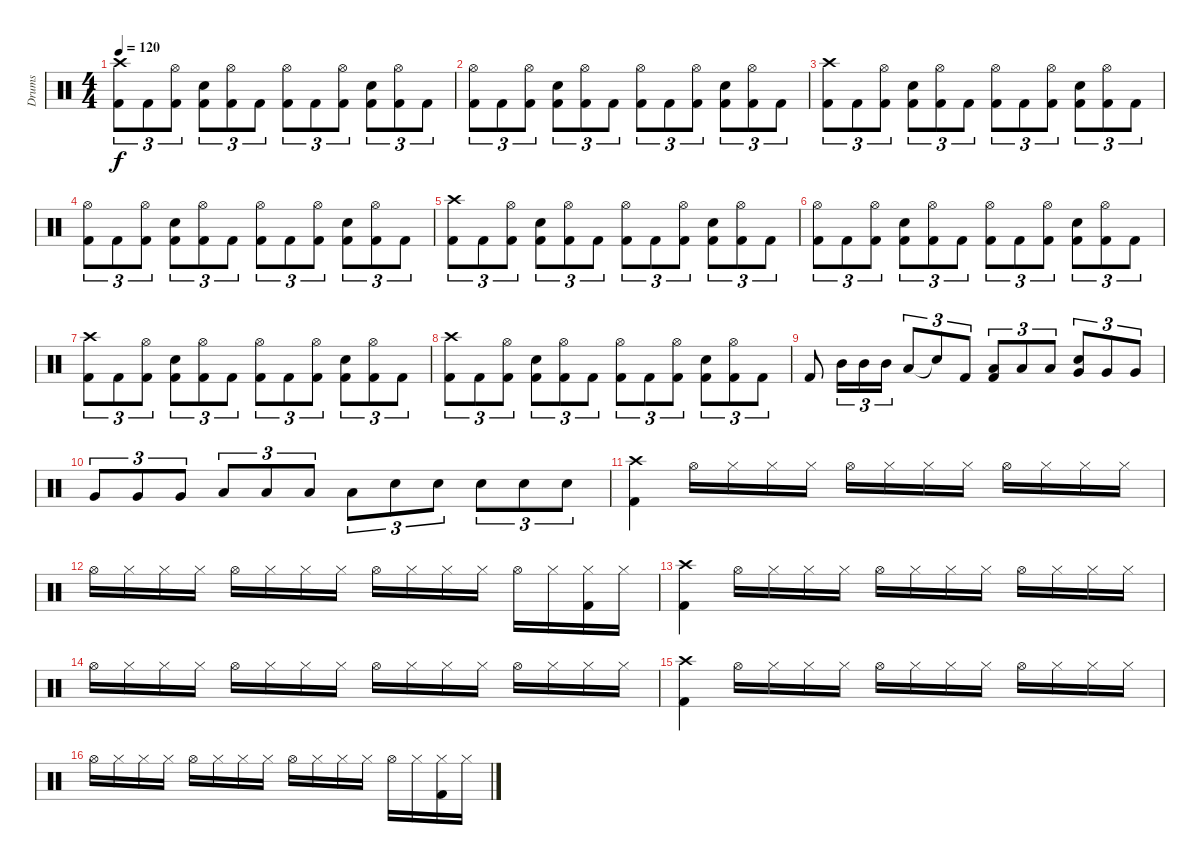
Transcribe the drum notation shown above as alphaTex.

\track ("Drums" "Drums") {instrument percussion}
\staff {score}
\articulation defaults
\ts (4 4)
\tempo 120
\clef neutral
\ks c
("Crash high (hit)" "Kick (hit) 2").8{tu (3 2) dy f} "Kick (hit) 2".8{tu (3 2)} ("Hi-Hat (open)" "Kick (hit) 2").8{tu (3 2)} ("Electric Snare (hit)" "Kick (hit) 2").8{tu (3 2)} ("Hi-Hat (open)" "Kick (hit) 2").8{tu (3 2)} "Kick (hit) 2".8{tu (3 2)} ("Hi-Hat (open)" "Kick (hit) 2").8{tu (3 2)} "Kick (hit) 2".8{tu (3 2)} ("Hi-Hat (open)" "Kick (hit) 2").8{tu (3 2)} ("Electric Snare (hit)" "Kick (hit) 2").8{tu (3 2)} ("Hi-Hat (open)" "Kick (hit) 2").8{tu (3 2)} "Kick (hit) 2".8{tu (3 2)} |
("Hi-Hat (open)" "Kick (hit) 2").8{tu (3 2)} "Kick (hit) 2".8{tu (3 2)} ("Hi-Hat (open)" "Kick (hit) 2").8{tu (3 2)} ("Electric Snare (hit)" "Kick (hit) 2").8{tu (3 2)} ("Hi-Hat (open)" "Kick (hit) 2").8{tu (3 2)} "Kick (hit) 2".8{tu (3 2)} ("Hi-Hat (open)" "Kick (hit) 2").8{tu (3 2)} "Kick (hit) 2".8{tu (3 2)} ("Hi-Hat (open)" "Kick (hit) 2").8{tu (3 2)} ("Electric Snare (hit)" "Kick (hit) 2").8{tu (3 2)} ("Hi-Hat (open)" "Kick (hit) 2").8{tu (3 2)} "Kick (hit) 2".8{tu (3 2)} |
("Crash high (hit)" "Kick (hit) 2").8{tu (3 2)} "Kick (hit) 2".8{tu (3 2)} ("Hi-Hat (open)" "Kick (hit) 2").8{tu (3 2)} ("Electric Snare (hit)" "Kick (hit) 2").8{tu (3 2)} ("Hi-Hat (open)" "Kick (hit) 2").8{tu (3 2)} "Kick (hit) 2".8{tu (3 2)} ("Hi-Hat (open)" "Kick (hit) 2").8{tu (3 2)} "Kick (hit) 2".8{tu (3 2)} ("Hi-Hat (open)" "Kick (hit) 2").8{tu (3 2)} ("Electric Snare (hit)" "Kick (hit) 2").8{tu (3 2)} ("Hi-Hat (open)" "Kick (hit) 2").8{tu (3 2)} "Kick (hit) 2".8{tu (3 2)} |
("Hi-Hat (open)" "Kick (hit) 2").8{tu (3 2)} "Kick (hit) 2".8{tu (3 2)} ("Hi-Hat (open)" "Kick (hit) 2").8{tu (3 2)} ("Electric Snare (hit)" "Kick (hit) 2").8{tu (3 2)} ("Hi-Hat (open)" "Kick (hit) 2").8{tu (3 2)} "Kick (hit) 2".8{tu (3 2)} ("Hi-Hat (open)" "Kick (hit) 2").8{tu (3 2)} "Kick (hit) 2".8{tu (3 2)} ("Hi-Hat (open)" "Kick (hit) 2").8{tu (3 2)} ("Electric Snare (hit)" "Kick (hit) 2").8{tu (3 2)} ("Hi-Hat (open)" "Kick (hit) 2").8{tu (3 2)} "Kick (hit) 2".8{tu (3 2)} |
("Crash high (hit)" "Kick (hit) 2").8{tu (3 2)} "Kick (hit) 2".8{tu (3 2)} ("Hi-Hat (open)" "Kick (hit) 2").8{tu (3 2)} ("Electric Snare (hit)" "Kick (hit) 2").8{tu (3 2)} ("Hi-Hat (open)" "Kick (hit) 2").8{tu (3 2)} "Kick (hit) 2".8{tu (3 2)} ("Hi-Hat (open)" "Kick (hit) 2").8{tu (3 2)} "Kick (hit) 2".8{tu (3 2)} ("Hi-Hat (open)" "Kick (hit) 2").8{tu (3 2)} ("Electric Snare (hit)" "Kick (hit) 2").8{tu (3 2)} ("Hi-Hat (open)" "Kick (hit) 2").8{tu (3 2)} "Kick (hit) 2".8{tu (3 2)} |
("Hi-Hat (open)" "Kick (hit) 2").8{tu (3 2)} "Kick (hit) 2".8{tu (3 2)} ("Hi-Hat (open)" "Kick (hit) 2").8{tu (3 2)} ("Electric Snare (hit)" "Kick (hit) 2").8{tu (3 2)} ("Hi-Hat (open)" "Kick (hit) 2").8{tu (3 2)} "Kick (hit) 2".8{tu (3 2)} ("Hi-Hat (open)" "Kick (hit) 2").8{tu (3 2)} "Kick (hit) 2".8{tu (3 2)} ("Hi-Hat (open)" "Kick (hit) 2").8{tu (3 2)} ("Electric Snare (hit)" "Kick (hit) 2").8{tu (3 2)} ("Hi-Hat (open)" "Kick (hit) 2").8{tu (3 2)} "Kick (hit) 2".8{tu (3 2)} |
("Crash high (hit)" "Kick (hit) 2").8{tu (3 2)} "Kick (hit) 2".8{tu (3 2)} ("Hi-Hat (open)" "Kick (hit) 2").8{tu (3 2)} ("Electric Snare (hit)" "Kick (hit) 2").8{tu (3 2)} ("Hi-Hat (open)" "Kick (hit) 2").8{tu (3 2)} "Kick (hit) 2".8{tu (3 2)} ("Hi-Hat (open)" "Kick (hit) 2").8{tu (3 2)} "Kick (hit) 2".8{tu (3 2)} ("Hi-Hat (open)" "Kick (hit) 2").8{tu (3 2)} ("Electric Snare (hit)" "Kick (hit) 2").8{tu (3 2)} ("Hi-Hat (open)" "Kick (hit) 2").8{tu (3 2)} "Kick (hit) 2".8{tu (3 2)} |
("Crash high (hit)" "Kick (hit) 2").8{tu (3 2)} "Kick (hit) 2".8{tu (3 2)} ("Hi-Hat (open)" "Kick (hit) 2").8{tu (3 2)} ("Electric Snare (hit)" "Kick (hit) 2").8{tu (3 2)} ("Hi-Hat (open)" "Kick (hit) 2").8{tu (3 2)} "Kick (hit) 2".8{tu (3 2)} ("Hi-Hat (open)" "Kick (hit) 2").8{tu (3 2)} "Kick (hit) 2".8{tu (3 2)} ("Hi-Hat (open)" "Kick (hit) 2").8{tu (3 2)} ("Electric Snare (hit)" "Kick (hit) 2").8{tu (3 2)} ("Hi-Hat (open)" "Kick (hit) 2").8{tu (3 2)} "Kick (hit) 2".8{tu (3 2)} |
"Kick (hit) 2".8 "Mid Tom (hit)".16{tu (3 2)} "Mid Tom (hit)".16{tu (3 2)} "Mid Tom (hit)".16{tu (3 2)} "Low Tom (hit)".8{tu (3 2)} "Snare (hit)"{t}.8{tu (3 2)} "Kick (hit) 2".8{tu (3 2)} ("Kick (hit) 2" "Low Tom (hit)").8{tu (3 2)} "Low Tom (hit)".8{tu (3 2)} "Low Tom (hit)".8{tu (3 2)} ("Snare (hit)" "Very Low Tom (hit)").8{tu (3 2)} "Very Low Tom (hit)".8{tu (3 2)} "Very Low Tom (hit)".8{tu (3 2)} |
"Very Low Tom (hit)".8{tu (3 2)} "Very Low Tom (hit)".8{tu (3 2)} "Very Low Tom (hit)".8{tu (3 2)} "Low Floor Tom (hit)".8{tu (3 2)} "Low Floor Tom (hit)".8{tu (3 2)} "Low Floor Tom (hit)".8{tu (3 2)} "Low Floor Tom (hit)".8{tu (3 2)} "Electric Snare (hit)".8{tu (3 2)} "Electric Snare (hit)".8{tu (3 2)} "Electric Snare (hit)".8{tu (3 2)} "Electric Snare (hit)".8{tu (3 2)} "Electric Snare (hit)".8{tu (3 2)} |
("Crash high (hit)" "Kick (hit) 2").4 "Hi-Hat (open)".16 "Hi-Hat (closed)".16 "Hi-Hat (closed)".16 "Hi-Hat (closed)".16 "Hi-Hat (open)".16 "Hi-Hat (closed)".16 "Hi-Hat (closed)".16 "Hi-Hat (closed)".16 "Hi-Hat (open)".16 "Hi-Hat (closed)".16 "Hi-Hat (closed)".16 "Hi-Hat (closed)".16 |
"Hi-Hat (open)".16 "Hi-Hat (closed)".16 "Hi-Hat (closed)".16 "Hi-Hat (closed)".16 "Hi-Hat (open)".16 "Hi-Hat (closed)".16 "Hi-Hat (closed)".16 "Hi-Hat (closed)".16 "Hi-Hat (open)".16 "Hi-Hat (closed)".16 "Hi-Hat (closed)".16 "Hi-Hat (closed)".16 "Hi-Hat (open)".16 "Hi-Hat (closed)".16 ("Hi-Hat (closed)" "Kick (hit) 2").16 "Hi-Hat (closed)".16 |
("Crash high (hit)" "Kick (hit) 2").4 "Hi-Hat (open)".16 "Hi-Hat (closed)".16 "Hi-Hat (closed)".16 "Hi-Hat (closed)".16 "Hi-Hat (open)".16 "Hi-Hat (closed)".16 "Hi-Hat (closed)".16 "Hi-Hat (closed)".16 "Hi-Hat (open)".16 "Hi-Hat (closed)".16 "Hi-Hat (closed)".16 "Hi-Hat (closed)".16 |
"Hi-Hat (open)".16 "Hi-Hat (closed)".16 "Hi-Hat (closed)".16 "Hi-Hat (closed)".16 "Hi-Hat (open)".16 "Hi-Hat (closed)".16 "Hi-Hat (closed)".16 "Hi-Hat (closed)".16 "Hi-Hat (open)".16 "Hi-Hat (closed)".16 "Hi-Hat (closed)".16 "Hi-Hat (closed)".16 "Hi-Hat (open)".16 "Hi-Hat (closed)".16 "Hi-Hat (closed)".16 "Hi-Hat (closed)".16 |
("Crash high (hit)" "Kick (hit) 2").4 "Hi-Hat (open)".16 "Hi-Hat (closed)".16 "Hi-Hat (closed)".16 "Hi-Hat (closed)".16 "Hi-Hat (open)".16 "Hi-Hat (closed)".16 "Hi-Hat (closed)".16 "Hi-Hat (closed)".16 "Hi-Hat (open)".16 "Hi-Hat (closed)".16 "Hi-Hat (closed)".16 "Hi-Hat (closed)".16 |
"Hi-Hat (open)".16 "Hi-Hat (closed)".16 "Hi-Hat (closed)".16 "Hi-Hat (closed)".16 "Hi-Hat (open)".16 "Hi-Hat (closed)".16 "Hi-Hat (closed)".16 "Hi-Hat (closed)".16 "Hi-Hat (open)".16 "Hi-Hat (closed)".16 "Hi-Hat (closed)".16 "Hi-Hat (closed)".16 "Hi-Hat (open)".16 "Hi-Hat (closed)".16 ("Hi-Hat (closed)" "Kick (hit) 2").16 "Hi-Hat (closed)".16
